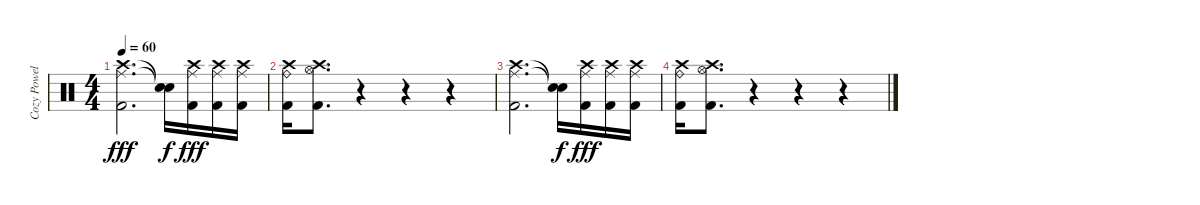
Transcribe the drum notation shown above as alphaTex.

\track ("Cozy Powell (Drums)" "Cozy Powel") {instrument percussion}
\staff {score}
\articulation defaults
\ts (4 4)
\tempo 60
\clef neutral
\ks c
("Ride (middle)" "Crash high (hit)" "Kick (hit) 2").2{d dy fff} ("Snare (hit)"{t} "Snare (hit)"{t}).16{dy f} ("Crash high (hit)" "Ride (middle)" "Kick (hit) 2").16{dy fff} ("Crash high (hit)" "Ride (middle)" "Kick (hit) 2").16 ("Crash high (hit)" "Ride (middle)" "Kick (hit) 2").16 |
("Ride (bell)" "Crash high (hit)" "Kick (hit) 2").16 ("Crash high (hit)" "Hi-Hat (open)" "Kick (hit) 2").8{d} r.4 r.4 r.4 |
("Ride (middle)" "Crash high (hit)" "Kick (hit) 2").2{d} ("Snare (hit)"{t} "Snare (hit)"{t}).16{dy f} ("Crash high (hit)" "Ride (middle)" "Kick (hit) 2").16{dy fff} ("Crash high (hit)" "Ride (middle)" "Kick (hit) 2").16 ("Crash high (hit)" "Ride (middle)" "Kick (hit) 2").16 |
("Ride (bell)" "Crash high (hit)" "Kick (hit) 2").16 ("Crash high (hit)" "Hi-Hat (open)" "Kick (hit) 2").8{d} r.4 r.4 r.4
